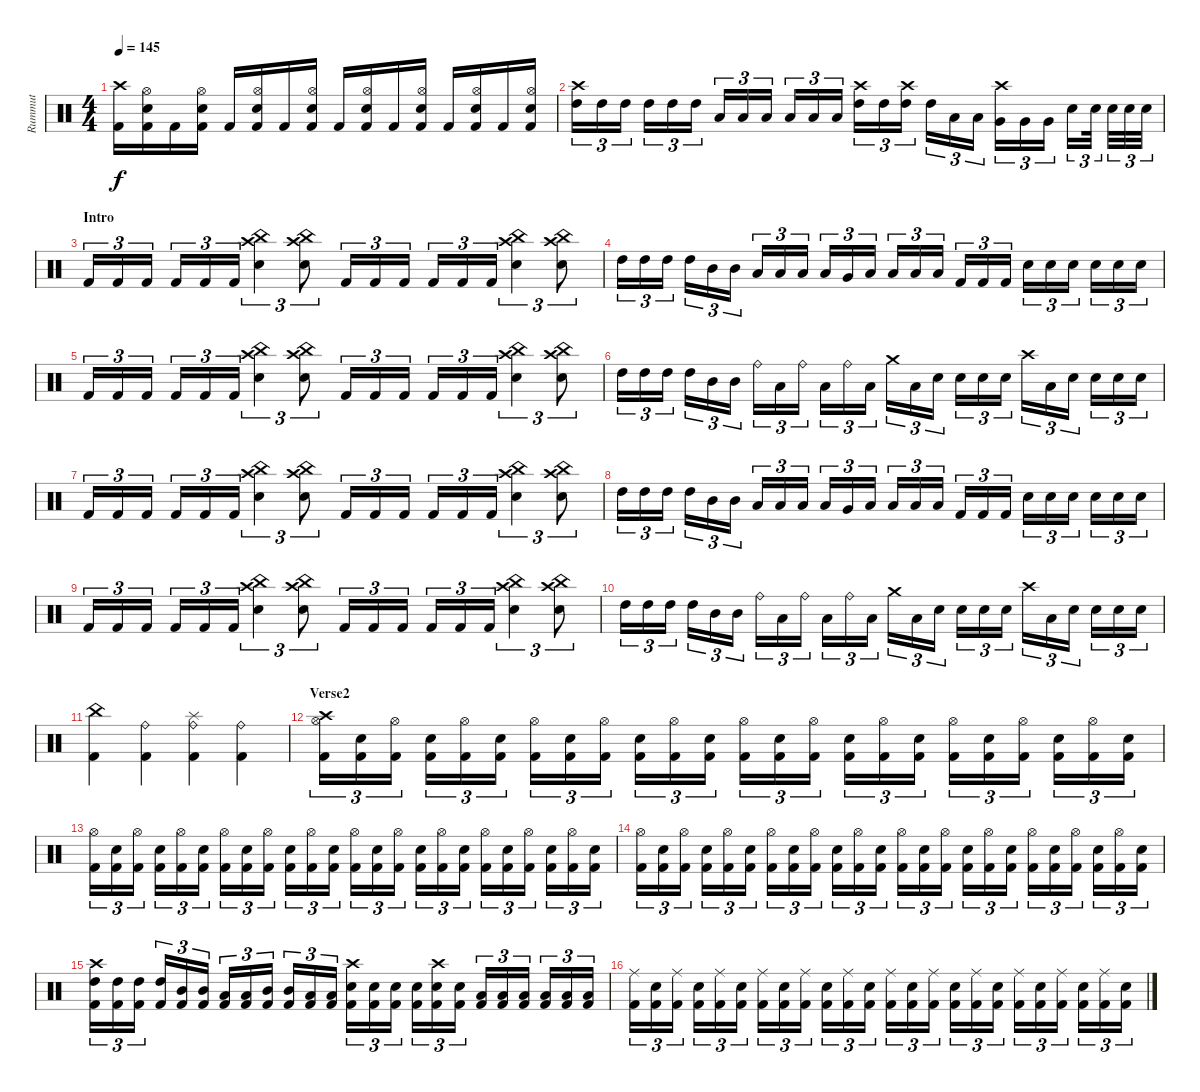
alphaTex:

\track ("Rummut" "Rummut") {instrument percussion}
\staff {score}
\articulation defaults
\ts (4 4)
\tempo 145
\clef neutral
\ks c
("Crash high (hit)" "Kick (hit) 2").16{dy f} ("Hi-Hat (open)" "Snare (hit) 2" "Kick (hit) 2").16 "Kick (hit) 2".16 ("Hi-Hat (open)" "Snare (hit) 2" "Kick (hit) 2").16 "Kick (hit) 2".16 ("Hi-Hat (open)" "Snare (hit) 2" "Kick (hit) 2").16 "Kick (hit) 2".16 ("Hi-Hat (open)" "Snare (hit) 2" "Kick (hit) 2").16 "Kick (hit) 2".16 ("Hi-Hat (open)" "Snare (hit) 2" "Kick (hit) 2").16 "Kick (hit) 2".16 ("Hi-Hat (open)" "Snare (hit) 2" "Kick (hit) 2").16 "Kick (hit) 2".16 ("Hi-Hat (open)" "Snare (hit) 2" "Kick (hit) 2").16 "Kick (hit) 2".16 ("Hi-Hat (open)" "Snare (hit) 2" "Kick (hit) 2").16 |
("Crash high (hit)" "High Tom (hit)").16{tu (3 2)} "High Tom (hit)".16{tu (3 2)} "High Tom (hit)".16{tu (3 2)} "High Tom (hit)".16{tu (3 2)} "High Tom (hit)".16{tu (3 2)} "High Tom (hit)".16{tu (3 2)} "Low Tom (hit)".16{tu (3 2)} "Low Tom (hit)".16{tu (3 2)} "Low Tom (hit)".16{tu (3 2)} "Low Tom (hit)".16{tu (3 2)} "Low Tom (hit)".16{tu (3 2)} "Low Tom (hit)".16{tu (3 2)} ("Crash high (hit)" "High Tom (hit)").16{tu (3 2)} "High Tom (hit)".16{tu (3 2)} ("Crash high (hit)" "High Tom (hit)").16{tu (3 2)} "High Tom (hit)".16{tu (3 2)} "Low Tom (hit)".16{tu (3 2)} "Low Tom (hit)".16{tu (3 2)} ("Crash high (hit)" "Very Low Tom (hit)").16{tu (3 2)} "Very Low Tom (hit)".16{tu (3 2)} "Very Low Tom (hit)".16{tu (3 2)} "Metronome (bell)".16{tu (3 2)} "Snare (hit) 2".32{tu (3 2)} "Snare (hit) 2".32{tu (3 2)} "Snare (hit) 2".32{tu (3 2)} "Snare (hit) 2".32{tu (3 2)} |
\section ("" "Intro")
"Kick (hit) 2".16{tu (3 2)} "Kick (hit) 2".16{tu (3 2)} "Kick (hit) 2".16{tu (3 2)} "Kick (hit) 2".16{tu (3 2)} "Kick (hit) 2".16{tu (3 2)} "Kick (hit) 2".16{tu (3 2)} ("Crash high (hit)" "China (hit)" "Snare (hit) 2").4{tu (3 2)} ("Crash high (hit)" "China (hit)" "Snare (hit) 2").8{tu (3 2)} "Kick (hit) 2".16{tu (3 2)} "Kick (hit) 2".16{tu (3 2)} "Kick (hit) 2".16{tu (3 2)} "Kick (hit) 2".16{tu (3 2)} "Kick (hit) 2".16{tu (3 2)} "Kick (hit) 2".16{tu (3 2)} ("Crash high (hit)" "China (hit)" "Snare (hit) 2").4{tu (3 2)} ("Crash high (hit)" "China (hit)" "Snare (hit) 2").8{tu (3 2)} |
"High Tom (hit)".16{tu (3 2)} "High Tom (hit)".16{tu (3 2)} "High Tom (hit)".16{tu (3 2)} "High Tom (hit)".16{tu (3 2)} "Mid Tom (hit)".16{tu (3 2)} "Mid Tom (hit)".16{tu (3 2)} "Low Tom (hit)".16{tu (3 2)} "Low Tom (hit)".16{tu (3 2)} "Low Tom (hit)".16{tu (3 2)} "Low Tom (hit)".16{tu (3 2)} "Very Low Tom (hit)".16{tu (3 2)} "Low Floor Tom (hit)".16{tu (3 2)} "Low Floor Tom (hit)".16{tu (3 2)} "Low Floor Tom (hit)".16{tu (3 2)} "Low Floor Tom (hit)".16{tu (3 2)} "Kick (hit) 2".16{tu (3 2)} "Kick (hit) 2".16{tu (3 2)} "Kick (hit) 2".16{tu (3 2)} "Electric Snare (hit)".16{tu (3 2)} "Electric Snare (hit)".16{tu (3 2)} "Electric Snare (hit)".16{tu (3 2)} "Electric Snare (hit)".16{tu (3 2)} "Electric Snare (hit)".16{tu (3 2)} "Electric Snare (hit)".16{tu (3 2)} |
"Kick (hit) 2".16{tu (3 2)} "Kick (hit) 2".16{tu (3 2)} "Kick (hit) 2".16{tu (3 2)} "Kick (hit) 2".16{tu (3 2)} "Kick (hit) 2".16{tu (3 2)} "Kick (hit) 2".16{tu (3 2)} ("Crash high (hit)" "China (hit)" "Snare (hit) 2").4{tu (3 2)} ("Crash high (hit)" "China (hit)" "Snare (hit) 2").8{tu (3 2)} "Kick (hit) 2".16{tu (3 2)} "Kick (hit) 2".16{tu (3 2)} "Kick (hit) 2".16{tu (3 2)} "Kick (hit) 2".16{tu (3 2)} "Kick (hit) 2".16{tu (3 2)} "Kick (hit) 2".16{tu (3 2)} ("Crash high (hit)" "China (hit)" "Snare (hit) 2").4{tu (3 2)} ("Crash high (hit)" "China (hit)" "Snare (hit) 2").8{tu (3 2)} |
"High Tom (hit)".16{tu (3 2)} "High Tom (hit)".16{tu (3 2)} "High Tom (hit)".16{tu (3 2)} "High Tom (hit)".16{tu (3 2)} "Mid Tom (hit)".16{tu (3 2)} "Mid Tom (hit)".16{tu (3 2)} "Ride (bell)".16{tu (3 2)} "Low Tom (hit)".16{tu (3 2)} "Ride (bell)".16{tu (3 2)} "Low Tom (hit)".16{tu (3 2)} "Ride (bell)".16{tu (3 2)} "Low Floor Tom (hit)".16{tu (3 2)} "Crash medium (hit)".16{tu (3 2)} "Low Floor Tom (hit)".16{tu (3 2)} "Electric Snare (hit)".16{tu (3 2)} "Electric Snare (hit)".16{tu (3 2)} "Electric Snare (hit)".16{tu (3 2)} "Electric Snare (hit)".16{tu (3 2)} "Crash high (hit)".16{tu (3 2)} "Low Floor Tom (hit)".16{tu (3 2)} "Electric Snare (hit)".16{tu (3 2)} "Electric Snare (hit)".16{tu (3 2)} "Electric Snare (hit)".16{tu (3 2)} "Electric Snare (hit)".16{tu (3 2)} |
"Kick (hit) 2".16{tu (3 2)} "Kick (hit) 2".16{tu (3 2)} "Kick (hit) 2".16{tu (3 2)} "Kick (hit) 2".16{tu (3 2)} "Kick (hit) 2".16{tu (3 2)} "Kick (hit) 2".16{tu (3 2)} ("Crash high (hit)" "China (hit)" "Snare (hit) 2").4{tu (3 2)} ("Crash high (hit)" "China (hit)" "Snare (hit) 2").8{tu (3 2)} "Kick (hit) 2".16{tu (3 2)} "Kick (hit) 2".16{tu (3 2)} "Kick (hit) 2".16{tu (3 2)} "Kick (hit) 2".16{tu (3 2)} "Kick (hit) 2".16{tu (3 2)} "Kick (hit) 2".16{tu (3 2)} ("Crash high (hit)" "China (hit)" "Snare (hit) 2").4{tu (3 2)} ("Crash high (hit)" "China (hit)" "Snare (hit) 2").8{tu (3 2)} |
"High Tom (hit)".16{tu (3 2)} "High Tom (hit)".16{tu (3 2)} "High Tom (hit)".16{tu (3 2)} "High Tom (hit)".16{tu (3 2)} "Mid Tom (hit)".16{tu (3 2)} "Mid Tom (hit)".16{tu (3 2)} "Low Tom (hit)".16{tu (3 2)} "Low Tom (hit)".16{tu (3 2)} "Low Tom (hit)".16{tu (3 2)} "Low Tom (hit)".16{tu (3 2)} "Very Low Tom (hit)".16{tu (3 2)} "Low Floor Tom (hit)".16{tu (3 2)} "Low Floor Tom (hit)".16{tu (3 2)} "Low Floor Tom (hit)".16{tu (3 2)} "Low Floor Tom (hit)".16{tu (3 2)} "Kick (hit) 2".16{tu (3 2)} "Kick (hit) 2".16{tu (3 2)} "Kick (hit) 2".16{tu (3 2)} "Electric Snare (hit)".16{tu (3 2)} "Electric Snare (hit)".16{tu (3 2)} "Electric Snare (hit)".16{tu (3 2)} "Electric Snare (hit)".16{tu (3 2)} "Electric Snare (hit)".16{tu (3 2)} "Electric Snare (hit)".16{tu (3 2)} |
"Kick (hit) 2".16{tu (3 2)} "Kick (hit) 2".16{tu (3 2)} "Kick (hit) 2".16{tu (3 2)} "Kick (hit) 2".16{tu (3 2)} "Kick (hit) 2".16{tu (3 2)} "Kick (hit) 2".16{tu (3 2)} ("Crash high (hit)" "China (hit)" "Snare (hit) 2").4{tu (3 2)} ("Crash high (hit)" "China (hit)" "Snare (hit) 2").8{tu (3 2)} "Kick (hit) 2".16{tu (3 2)} "Kick (hit) 2".16{tu (3 2)} "Kick (hit) 2".16{tu (3 2)} "Kick (hit) 2".16{tu (3 2)} "Kick (hit) 2".16{tu (3 2)} "Kick (hit) 2".16{tu (3 2)} ("Crash high (hit)" "China (hit)" "Snare (hit) 2").4{tu (3 2)} ("Crash high (hit)" "China (hit)" "Snare (hit) 2").8{tu (3 2)} |
"High Tom (hit)".16{tu (3 2)} "High Tom (hit)".16{tu (3 2)} "High Tom (hit)".16{tu (3 2)} "High Tom (hit)".16{tu (3 2)} "Mid Tom (hit)".16{tu (3 2)} "Mid Tom (hit)".16{tu (3 2)} "Ride (bell)".16{tu (3 2)} "Low Tom (hit)".16{tu (3 2)} "Ride (bell)".16{tu (3 2)} "Low Tom (hit)".16{tu (3 2)} "Ride (bell)".16{tu (3 2)} "Low Floor Tom (hit)".16{tu (3 2)} "Crash medium (hit)".16{tu (3 2)} "Low Floor Tom (hit)".16{tu (3 2)} "Electric Snare (hit)".16{tu (3 2)} "Electric Snare (hit)".16{tu (3 2)} "Electric Snare (hit)".16{tu (3 2)} "Electric Snare (hit)".16{tu (3 2)} "Crash high (hit)".16{tu (3 2)} "Low Floor Tom (hit)".16{tu (3 2)} "Electric Snare (hit)".16{tu (3 2)} "Electric Snare (hit)".16{tu (3 2)} "Electric Snare (hit)".16{tu (3 2)} "Electric Snare (hit)".16{tu (3 2)} |
("China (hit)" "Kick (hit) 2").4 ("Ride (bell)" "Kick (hit) 2").4 ("Splash (hit)" "Ride (bell)" "Kick (hit) 2").4 ("Ride (bell)" "Kick (hit) 2").4 |
\section ("" "Verse2")
("Crash high (hit)" "Hi-Hat (open)" "Kick (hit) 2").16{tu (3 2)} ("Snare (hit) 2" "Kick (hit) 2").16{tu (3 2)} ("Hi-Hat (open)" "Kick (hit) 2").16{tu (3 2)} ("Snare (hit) 2" "Kick (hit) 2").16{tu (3 2)} ("Hi-Hat (open)" "Kick (hit) 2").16{tu (3 2)} ("Snare (hit) 2" "Kick (hit) 2").16{tu (3 2)} ("Hi-Hat (open)" "Kick (hit) 2").16{tu (3 2)} ("Snare (hit) 2" "Kick (hit) 2").16{tu (3 2)} ("Hi-Hat (open)" "Kick (hit) 2").16{tu (3 2)} ("Snare (hit) 2" "Kick (hit) 2").16{tu (3 2)} ("Hi-Hat (open)" "Kick (hit) 2").16{tu (3 2)} ("Snare (hit) 2" "Kick (hit) 2").16{tu (3 2)} ("Hi-Hat (open)" "Kick (hit) 2").16{tu (3 2)} ("Snare (hit) 2" "Kick (hit) 2").16{tu (3 2)} ("Hi-Hat (open)" "Kick (hit) 2").16{tu (3 2)} ("Snare (hit) 2" "Kick (hit) 2").16{tu (3 2)} ("Hi-Hat (open)" "Kick (hit) 2").16{tu (3 2)} ("Snare (hit) 2" "Kick (hit) 2").16{tu (3 2)} ("Hi-Hat (open)" "Kick (hit) 2").16{tu (3 2)} ("Snare (hit) 2" "Kick (hit) 2").16{tu (3 2)} ("Hi-Hat (open)" "Kick (hit) 2").16{tu (3 2)} ("Snare (hit) 2" "Kick (hit) 2").16{tu (3 2)} ("Hi-Hat (open)" "Kick (hit) 2").16{tu (3 2)} ("Snare (hit) 2" "Kick (hit) 2").16{tu (3 2)} |
("Hi-Hat (open)" "Kick (hit) 2").16{tu (3 2)} ("Snare (hit) 2" "Kick (hit) 2").16{tu (3 2)} ("Hi-Hat (open)" "Kick (hit) 2").16{tu (3 2)} ("Snare (hit) 2" "Kick (hit) 2").16{tu (3 2)} ("Hi-Hat (open)" "Kick (hit) 2").16{tu (3 2)} ("Snare (hit) 2" "Kick (hit) 2").16{tu (3 2)} ("Hi-Hat (open)" "Kick (hit) 2").16{tu (3 2)} ("Snare (hit) 2" "Kick (hit) 2").16{tu (3 2)} ("Hi-Hat (open)" "Kick (hit) 2").16{tu (3 2)} ("Snare (hit) 2" "Kick (hit) 2").16{tu (3 2)} ("Hi-Hat (open)" "Kick (hit) 2").16{tu (3 2)} ("Snare (hit) 2" "Kick (hit) 2").16{tu (3 2)} ("Hi-Hat (open)" "Kick (hit) 2").16{tu (3 2)} ("Snare (hit) 2" "Kick (hit) 2").16{tu (3 2)} ("Hi-Hat (open)" "Kick (hit) 2").16{tu (3 2)} ("Snare (hit) 2" "Kick (hit) 2").16{tu (3 2)} ("Hi-Hat (open)" "Kick (hit) 2").16{tu (3 2)} ("Snare (hit) 2" "Kick (hit) 2").16{tu (3 2)} ("Hi-Hat (open)" "Kick (hit) 2").16{tu (3 2)} ("Snare (hit) 2" "Kick (hit) 2").16{tu (3 2)} ("Hi-Hat (open)" "Kick (hit) 2").16{tu (3 2)} ("Snare (hit) 2" "Kick (hit) 2").16{tu (3 2)} ("Hi-Hat (open)" "Kick (hit) 2").16{tu (3 2)} ("Snare (hit) 2" "Kick (hit) 2").16{tu (3 2)} |
("Hi-Hat (open)" "Kick (hit) 2").16{tu (3 2)} ("Snare (hit) 2" "Kick (hit) 2").16{tu (3 2)} ("Hi-Hat (open)" "Kick (hit) 2").16{tu (3 2)} ("Snare (hit) 2" "Kick (hit) 2").16{tu (3 2)} ("Hi-Hat (open)" "Kick (hit) 2").16{tu (3 2)} ("Snare (hit) 2" "Kick (hit) 2").16{tu (3 2)} ("Hi-Hat (open)" "Kick (hit) 2").16{tu (3 2)} ("Snare (hit) 2" "Kick (hit) 2").16{tu (3 2)} ("Hi-Hat (open)" "Kick (hit) 2").16{tu (3 2)} ("Snare (hit) 2" "Kick (hit) 2").16{tu (3 2)} ("Hi-Hat (open)" "Kick (hit) 2").16{tu (3 2)} ("Snare (hit) 2" "Kick (hit) 2").16{tu (3 2)} ("Hi-Hat (open)" "Kick (hit) 2").16{tu (3 2)} ("Snare (hit) 2" "Kick (hit) 2").16{tu (3 2)} ("Hi-Hat (open)" "Kick (hit) 2").16{tu (3 2)} ("Snare (hit) 2" "Kick (hit) 2").16{tu (3 2)} ("Hi-Hat (open)" "Kick (hit) 2").16{tu (3 2)} ("Snare (hit) 2" "Kick (hit) 2").16{tu (3 2)} ("Hi-Hat (open)" "Kick (hit) 2").16{tu (3 2)} ("Snare (hit) 2" "Kick (hit) 2").16{tu (3 2)} ("Hi-Hat (open)" "Kick (hit) 2").16{tu (3 2)} ("Snare (hit) 2" "Kick (hit) 2").16{tu (3 2)} ("Hi-Hat (open)" "Kick (hit) 2").16{tu (3 2)} ("Snare (hit) 2" "Kick (hit) 2").16{tu (3 2)} |
("Crash high (hit)" "High Tom (hit)" "Kick (hit) 2").16{tu (3 2)} ("High Tom (hit)" "Kick (hit) 2").16{tu (3 2)} ("High Tom (hit)" "Kick (hit) 2").16{tu (3 2)} ("High Tom (hit)" "Kick (hit) 2").16{tu (3 2)} ("Mid Tom (hit)" "Kick (hit) 2").16{tu (3 2)} ("Mid Tom (hit)" "Kick (hit) 2").16{tu (3 2)} ("Low Tom (hit)" "Kick (hit) 2").16{tu (3 2)} ("Low Tom (hit)" "Kick (hit) 2").16{tu (3 2)} ("Mid Tom (hit)" "Kick (hit) 2").16{tu (3 2)} ("Mid Tom (hit)" "Kick (hit) 2").16{tu (3 2)} ("Low Tom (hit)" "Kick (hit) 2").16{tu (3 2)} ("Low Tom (hit)" "Kick (hit) 2").16{tu (3 2)} ("Crash high (hit)" "Snare (hit) 2" "Kick (hit) 2").16{tu (3 2)} ("Snare (hit) 2" "Kick (hit) 2").16{tu (3 2)} ("Snare (hit) 2" "Kick (hit) 2").16{tu (3 2)} ("Snare (hit) 2" "Kick (hit) 2").16{tu (3 2)} ("Crash high (hit)" "Snare (hit) 2" "Kick (hit) 2").16{tu (3 2)} ("Snare (hit) 2" "Kick (hit) 2").16{tu (3 2)} ("Low Tom (hit)" "Kick (hit) 2").16{tu (3 2)} ("Low Tom (hit)" "Kick (hit) 2").16{tu (3 2)} ("Low Tom (hit)" "Kick (hit) 2").16{tu (3 2)} ("Low Tom (hit)" "Kick (hit) 2").16{tu (3 2)} ("Low Tom (hit)" "Kick (hit) 2").16{tu (3 2)} ("Low Tom (hit)" "Kick (hit) 2").16{tu (3 2)} |
("Ride (middle)" "Kick (hit) 2").16{tu (3 2)} ("Snare (hit) 2" "Kick (hit) 2").16{tu (3 2)} ("Ride (middle)" "Kick (hit) 2").16{tu (3 2)} ("Snare (hit) 2" "Kick (hit) 2").16{tu (3 2)} ("Ride (middle)" "Kick (hit) 2").16{tu (3 2)} ("Snare (hit) 2" "Kick (hit) 2").16{tu (3 2)} ("Ride (middle)" "Kick (hit) 2").16{tu (3 2)} ("Snare (hit) 2" "Kick (hit) 2").16{tu (3 2)} ("Ride (middle)" "Kick (hit) 2").16{tu (3 2)} ("Snare (hit) 2" "Kick (hit) 2").16{tu (3 2)} ("Ride (middle)" "Kick (hit) 2").16{tu (3 2)} ("Snare (hit) 2" "Kick (hit) 2").16{tu (3 2)} ("Ride (middle)" "Kick (hit) 2").16{tu (3 2)} ("Snare (hit) 2" "Kick (hit) 2").16{tu (3 2)} ("Ride (middle)" "Kick (hit) 2").16{tu (3 2)} ("Snare (hit) 2" "Kick (hit) 2").16{tu (3 2)} ("Ride (middle)" "Kick (hit) 2").16{tu (3 2)} ("Snare (hit) 2" "Kick (hit) 2").16{tu (3 2)} ("Ride (middle)" "Kick (hit) 2").16{tu (3 2)} ("Snare (hit) 2" "Kick (hit) 2").16{tu (3 2)} ("Ride (middle)" "Kick (hit) 2").16{tu (3 2)} ("Snare (hit) 2" "Kick (hit) 2").16{tu (3 2)} ("Ride (middle)" "Kick (hit) 2").16{tu (3 2)} ("Snare (hit) 2" "Kick (hit) 2").16{tu (3 2)}
